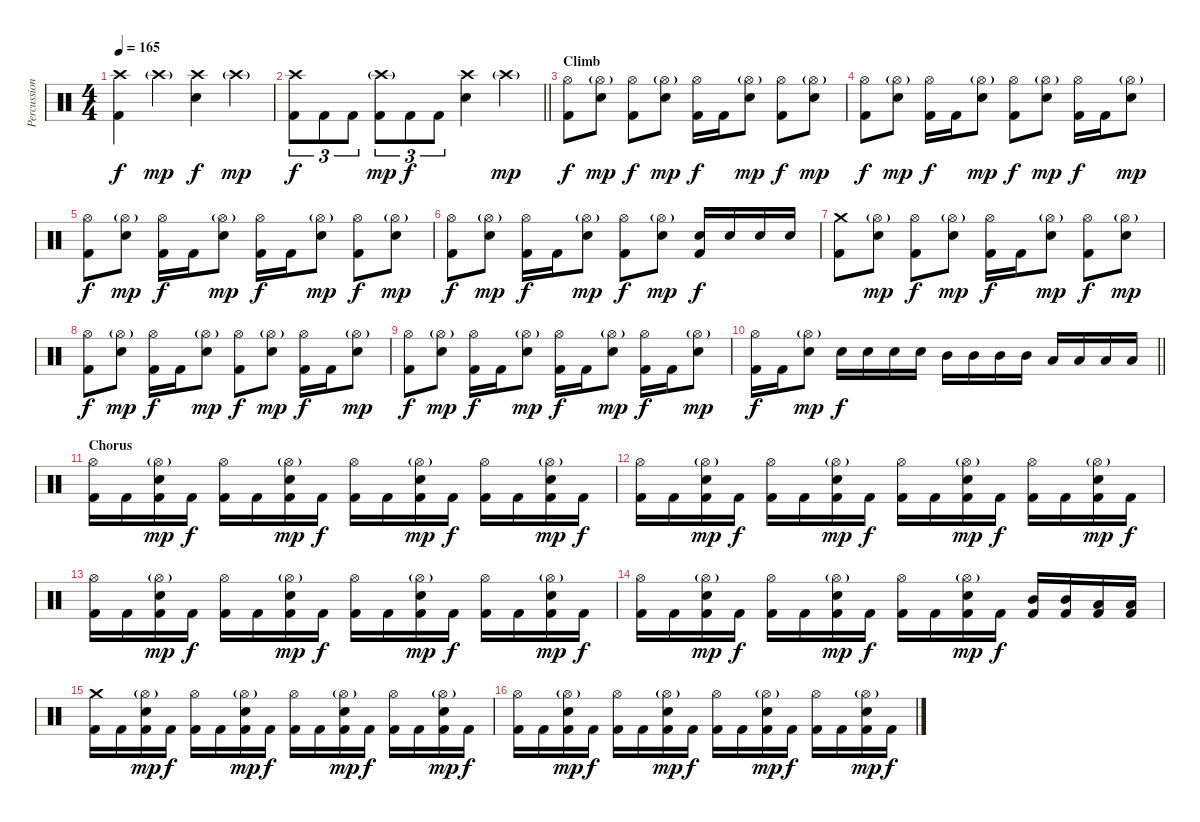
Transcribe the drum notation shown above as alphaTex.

\track ("Percussion" "Percussion") {instrument percussion}
\staff {score}
\articulation defaults
\ts (4 4)
\tempo 165
\clef neutral
\ks c
("Crash high (hit)" "Kick (hit) 2").4{dy f} "Crash high (hit)"{g}.4{dy mp} ("Crash high (hit)" "Snare (hit) 2").4{dy f} "Crash high (hit)"{g}.4{dy mp} |
\barLineRight lightlight
("Crash high (hit)" "Kick (hit) 2").8{tu (3 2) dy f} "Kick (hit) 2".8{tu (3 2)} "Kick (hit) 2".8{tu (3 2)} ("Crash high (hit)"{g} "Kick (hit) 2").8{tu (3 2) dy mp} "Kick (hit) 2".8{tu (3 2) dy f} "Kick (hit) 2".8{tu (3 2)} ("Crash high (hit)" "Snare (hit) 2").4 "Crash high (hit)"{g}.4{dy mp} |
\section ("" "Climb")
("Hi-Hat (open)" "Kick (hit) 2").8{dy f} ("Hi-Hat (open)"{g} "Snare (hit) 2").8{dy mp} ("Hi-Hat (open)" "Kick (hit) 2").8{dy f} ("Hi-Hat (open)"{g} "Snare (hit) 2").8{dy mp} ("Hi-Hat (open)" "Kick (hit) 2").16{dy f} "Kick (hit) 2".16 ("Hi-Hat (open)"{g} "Snare (hit) 2").8{dy mp} ("Hi-Hat (open)" "Kick (hit) 2").8{dy f} ("Hi-Hat (open)"{g} "Snare (hit) 2").8{dy mp} |
("Hi-Hat (open)" "Kick (hit) 2").8{dy f} ("Hi-Hat (open)"{g} "Snare (hit) 2").8{dy mp} ("Hi-Hat (open)" "Kick (hit) 2").16{dy f} "Kick (hit) 2".16 ("Hi-Hat (open)"{g} "Snare (hit) 2").8{dy mp} ("Hi-Hat (open)" "Kick (hit) 2").8{dy f} ("Hi-Hat (open)"{g} "Snare (hit) 2").8{dy mp} ("Hi-Hat (open)" "Kick (hit) 2").16{dy f} "Kick (hit) 2".16 ("Hi-Hat (open)"{g} "Snare (hit) 2").8{dy mp} |
("Hi-Hat (open)" "Kick (hit) 2").8{dy f} ("Hi-Hat (open)"{g} "Snare (hit) 2").8{dy mp} ("Hi-Hat (open)" "Kick (hit) 2").16{dy f} "Kick (hit) 2".16 ("Hi-Hat (open)"{g} "Snare (hit) 2").8{dy mp} ("Hi-Hat (open)" "Kick (hit) 2").16{dy f} "Kick (hit) 2".16 ("Hi-Hat (open)"{g} "Snare (hit) 2").8{dy mp} ("Hi-Hat (open)" "Kick (hit) 2").8{dy f} ("Hi-Hat (open)"{g} "Snare (hit) 2").8{dy mp} |
("Hi-Hat (open)" "Kick (hit) 2").8{dy f} ("Hi-Hat (open)"{g} "Snare (hit) 2").8{dy mp} ("Hi-Hat (open)" "Kick (hit) 2").16{dy f} "Kick (hit) 2".16 ("Hi-Hat (open)"{g} "Snare (hit) 2").8{dy mp} ("Hi-Hat (open)" "Kick (hit) 2").8{dy f} ("Hi-Hat (open)"{g} "Snare (hit) 2").8{dy mp} ("Snare (hit) 2" "Kick (hit) 2").16{dy f} "Snare (hit) 2".16 "Snare (hit) 2".16 "Snare (hit) 2".16 |
("Crash medium (hit)" "Kick (hit) 2").8 ("Hi-Hat (open)"{g} "Snare (hit) 2").8{dy mp} ("Hi-Hat (open)" "Kick (hit) 2").8{dy f} ("Hi-Hat (open)"{g} "Snare (hit) 2").8{dy mp} ("Hi-Hat (open)" "Kick (hit) 2").16{dy f} "Kick (hit) 2".16 ("Hi-Hat (open)"{g} "Snare (hit) 2").8{dy mp} ("Hi-Hat (open)" "Kick (hit) 2").8{dy f} ("Hi-Hat (open)"{g} "Snare (hit) 2").8{dy mp} |
("Hi-Hat (open)" "Kick (hit) 2").8{dy f} ("Hi-Hat (open)"{g} "Snare (hit) 2").8{dy mp} ("Hi-Hat (open)" "Kick (hit) 2").16{dy f} "Kick (hit) 2".16 ("Hi-Hat (open)"{g} "Snare (hit) 2").8{dy mp} ("Hi-Hat (open)" "Kick (hit) 2").8{dy f} ("Hi-Hat (open)"{g} "Snare (hit) 2").8{dy mp} ("Hi-Hat (open)" "Kick (hit) 2").16{dy f} "Kick (hit) 2".16 ("Hi-Hat (open)"{g} "Snare (hit) 2").8{dy mp} |
("Hi-Hat (open)" "Kick (hit) 2").8{dy f} ("Hi-Hat (open)"{g} "Snare (hit) 2").8{dy mp} ("Hi-Hat (open)" "Kick (hit) 2").16{dy f} "Kick (hit) 2".16 ("Hi-Hat (open)"{g} "Snare (hit) 2").8{dy mp} ("Hi-Hat (open)" "Kick (hit) 2").16{dy f} "Kick (hit) 2".16 ("Hi-Hat (open)"{g} "Snare (hit) 2").8{dy mp} ("Hi-Hat (open)" "Kick (hit) 2").16{dy f} "Kick (hit) 2".16 ("Hi-Hat (open)"{g} "Snare (hit) 2").8{dy mp} |
\barLineRight lightlight
("Hi-Hat (open)" "Kick (hit) 2").16{dy f} "Kick (hit) 2".16 ("Hi-Hat (open)"{g} "Snare (hit) 2").8{dy mp} "Snare (hit) 2".16{dy f} "Snare (hit) 2".16 "Snare (hit) 2".16 "Snare (hit) 2".16 "Mid Tom (hit)".16 "Mid Tom (hit)".16 "Mid Tom (hit)".16 "Mid Tom (hit)".16 "Low Tom (hit)".16 "Low Tom (hit)".16 "Low Tom (hit)".16 "Low Tom (hit)".16 |
\section ("" "Chorus")
("Hi-Hat (open)" "Kick (hit) 2").16 "Kick (hit) 2".16 ("Hi-Hat (open)"{g} "Snare (hit) 2" "Kick (hit) 2").16{dy mp} "Kick (hit) 2".16{dy f} ("Hi-Hat (open)" "Kick (hit) 2").16 "Kick (hit) 2".16 ("Hi-Hat (open)"{g} "Snare (hit) 2" "Kick (hit) 2").16{dy mp} "Kick (hit) 2".16{dy f} ("Hi-Hat (open)" "Kick (hit) 2").16 "Kick (hit) 2".16 ("Hi-Hat (open)"{g} "Snare (hit) 2" "Kick (hit) 2").16{dy mp} "Kick (hit) 2".16{dy f} ("Hi-Hat (open)" "Kick (hit) 2").16 "Kick (hit) 2".16 ("Hi-Hat (open)"{g} "Snare (hit) 2" "Kick (hit) 2").16{dy mp} "Kick (hit) 2".16{dy f} |
("Hi-Hat (open)" "Kick (hit) 2").16 "Kick (hit) 2".16 ("Hi-Hat (open)"{g} "Snare (hit) 2" "Kick (hit) 2").16{dy mp} "Kick (hit) 2".16{dy f} ("Hi-Hat (open)" "Kick (hit) 2").16 "Kick (hit) 2".16 ("Hi-Hat (open)"{g} "Snare (hit) 2" "Kick (hit) 2").16{dy mp} "Kick (hit) 2".16{dy f} ("Hi-Hat (open)" "Kick (hit) 2").16 "Kick (hit) 2".16 ("Hi-Hat (open)"{g} "Snare (hit) 2" "Kick (hit) 2").16{dy mp} "Kick (hit) 2".16{dy f} ("Hi-Hat (open)" "Kick (hit) 2").16 "Kick (hit) 2".16 ("Hi-Hat (open)"{g} "Snare (hit) 2" "Kick (hit) 2").16{dy mp} "Kick (hit) 2".16{dy f} |
("Hi-Hat (open)" "Kick (hit) 2").16 "Kick (hit) 2".16 ("Hi-Hat (open)"{g} "Snare (hit) 2" "Kick (hit) 2").16{dy mp} "Kick (hit) 2".16{dy f} ("Hi-Hat (open)" "Kick (hit) 2").16 "Kick (hit) 2".16 ("Hi-Hat (open)"{g} "Snare (hit) 2" "Kick (hit) 2").16{dy mp} "Kick (hit) 2".16{dy f} ("Hi-Hat (open)" "Kick (hit) 2").16 "Kick (hit) 2".16 ("Hi-Hat (open)"{g} "Snare (hit) 2" "Kick (hit) 2").16{dy mp} "Kick (hit) 2".16{dy f} ("Hi-Hat (open)" "Kick (hit) 2").16 "Kick (hit) 2".16 ("Hi-Hat (open)"{g} "Snare (hit) 2" "Kick (hit) 2").16{dy mp} "Kick (hit) 2".16{dy f} |
("Hi-Hat (open)" "Kick (hit) 2").16 "Kick (hit) 2".16 ("Hi-Hat (open)"{g} "Snare (hit) 2" "Kick (hit) 2").16{dy mp} "Kick (hit) 2".16{dy f} ("Hi-Hat (open)" "Kick (hit) 2").16 "Kick (hit) 2".16 ("Hi-Hat (open)"{g} "Snare (hit) 2" "Kick (hit) 2").16{dy mp} "Kick (hit) 2".16{dy f} ("Hi-Hat (open)" "Kick (hit) 2").16 "Kick (hit) 2".16 ("Hi-Hat (open)"{g} "Snare (hit) 2" "Kick (hit) 2").16{dy mp} "Kick (hit) 2".16{dy f} ("Mid Tom (hit)" "Kick (hit) 2").16 ("Mid Tom (hit)" "Kick (hit) 2").16 ("Low Tom (hit)" "Kick (hit) 2").16 ("Low Tom (hit)" "Kick (hit) 2").16 |
("Crash medium (hit)" "Kick (hit) 2").16 "Kick (hit) 2".16 ("Hi-Hat (open)"{g} "Snare (hit) 2" "Kick (hit) 2").16{dy mp} "Kick (hit) 2".16{dy f} ("Hi-Hat (open)" "Kick (hit) 2").16 "Kick (hit) 2".16 ("Hi-Hat (open)"{g} "Snare (hit) 2" "Kick (hit) 2").16{dy mp} "Kick (hit) 2".16{dy f} ("Hi-Hat (open)" "Kick (hit) 2").16 "Kick (hit) 2".16 ("Hi-Hat (open)"{g} "Snare (hit) 2" "Kick (hit) 2").16{dy mp} "Kick (hit) 2".16{dy f} ("Hi-Hat (open)" "Kick (hit) 2").16 "Kick (hit) 2".16 ("Hi-Hat (open)"{g} "Snare (hit) 2" "Kick (hit) 2").16{dy mp} "Kick (hit) 2".16{dy f} |
("Hi-Hat (open)" "Kick (hit) 2").16 "Kick (hit) 2".16 ("Hi-Hat (open)"{g} "Snare (hit) 2" "Kick (hit) 2").16{dy mp} "Kick (hit) 2".16{dy f} ("Hi-Hat (open)" "Kick (hit) 2").16 "Kick (hit) 2".16 ("Hi-Hat (open)"{g} "Snare (hit) 2" "Kick (hit) 2").16{dy mp} "Kick (hit) 2".16{dy f} ("Hi-Hat (open)" "Kick (hit) 2").16 "Kick (hit) 2".16 ("Hi-Hat (open)"{g} "Snare (hit) 2" "Kick (hit) 2").16{dy mp} "Kick (hit) 2".16{dy f} ("Hi-Hat (open)" "Kick (hit) 2").16 "Kick (hit) 2".16 ("Hi-Hat (open)"{g} "Snare (hit) 2" "Kick (hit) 2").16{dy mp} "Kick (hit) 2".16{dy f}
